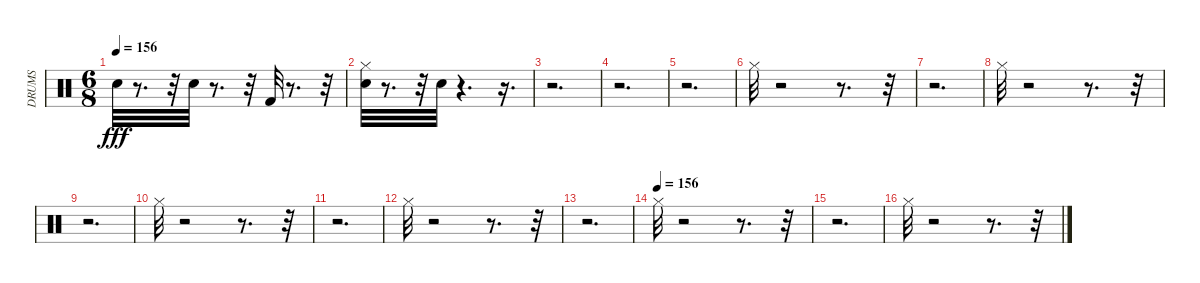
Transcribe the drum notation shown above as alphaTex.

\track ("DRUMS" "DRUMS") {instrument percussion}
\staff {score}
\articulation defaults
\ts (6 8)
\tempo 156
\clef neutral
\ks c "Snare (hit) 2".32{dy fff}
r.8{d} r.32 "Snare (hit) 2".32 r.8{d} r.32 "Kick (hit) 2".32 r.8{d} r.32 |
("Hi-Hat (closed)" "Snare (hit) 2").32 r.8{d} r.32 "Snare (hit) 2".32 r.4{d} r.16{d} |
r.2{d} |
r.2{d} |
r.2{d} |
"Hi-Hat (closed)".32 r.2 r.8{d} r.32 |
r.2{d} |
"Hi-Hat (closed)".32 r.2 r.8{d} r.32 |
r.2{d} |
"Hi-Hat (closed)".32 r.2 r.8{d} r.32 |
r.2{d} |
"Hi-Hat (closed)".32 r.2 r.8{d} r.32 |
r.2{d} |
\tempo (156)
"Hi-Hat (closed)".32 r.2 r.8{d} r.32 |
r.2{d} |
"Hi-Hat (closed)".32 r.2 r.8{d} r.32
